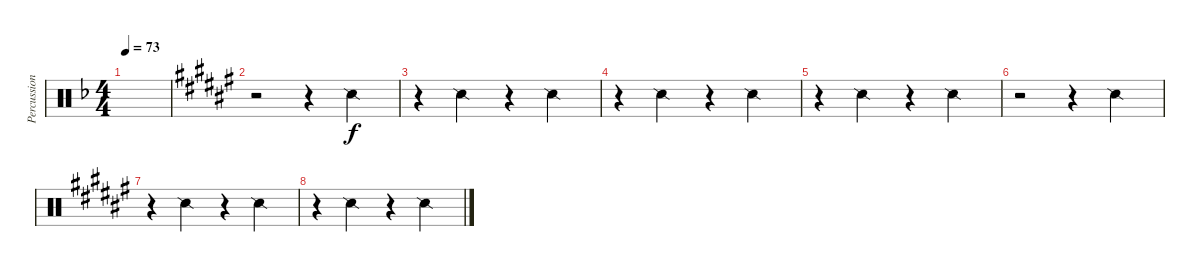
\track ("Percussion" "Percussion") {instrument percussion}
\staff {score}
\articulation defaults
\ts (4 4)
\tempo 73
\clef neutral
\ks f
|
\ks f#
r.2 r.4 "Snare (side stick) 2".4 |
r.4 "Snare (side stick) 2".4 r.4 "Snare (side stick) 2".4 |
r.4 "Snare (side stick) 2".4 r.4 "Snare (side stick) 2".4 |
r.4 "Snare (side stick) 2".4 r.4 "Snare (side stick) 2".4 |
r.2 r.4 "Snare (side stick) 2".4 |
r.4 "Snare (side stick) 2".4 r.4 "Snare (side stick) 2".4 |
r.4 "Snare (side stick) 2".4 r.4 "Snare (side stick) 2".4
